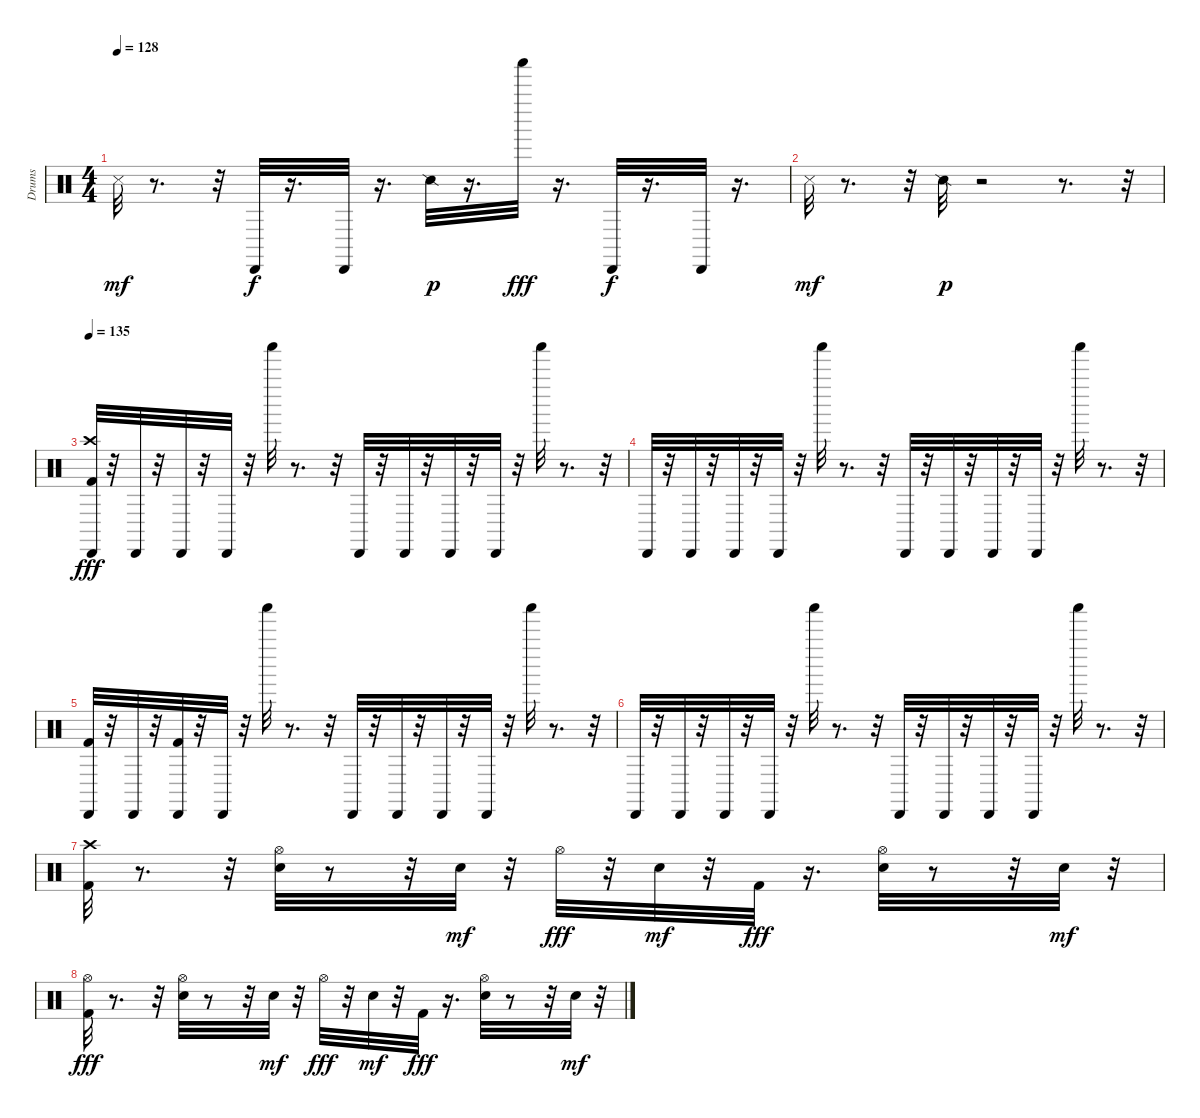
\track ("Drums" "Drums") {instrument percussion}
\staff {score}
\articulation defaults
\ts (4 4)
\tempo 128
\clef neutral
\ks c "Metronome (hit)".32{dy mf}
r.8{d} r.32 "Cabasa (hit)".32{dy f} r.16{d} "Cabasa (hit)".32 r.16{d} "Snare (side stick) 2".32{dy p} r.16{d} "Shaker (hit)".32{dy fff} r.16{d} "Cabasa (hit)".32{dy f} r.16{d} "Cabasa (hit)".32 r.16{d} |
"Metronome (hit)".32{dy mf} r.8{d} r.32 "Snare (side stick) 2".32{dy p} r.2 r.8{d} r.32 |
\tempo 135
("Kick (hit) 2" "Crash high (hit)" "Cabasa (hit)").32{dy fff} r.32 "Cabasa (hit)".32 r.32 "Cabasa (hit)".32 r.32 "Cabasa (hit)".32 r.32 "Shaker (hit)".32 r.8{d} r.32 "Cabasa (hit)".32 r.32 "Cabasa (hit)".32 r.32 "Cabasa (hit)".32 r.32 "Cabasa (hit)".32 r.32 "Shaker (hit)".32 r.8{d} r.32 |
"Cabasa (hit)".32 r.32 "Cabasa (hit)".32 r.32 "Cabasa (hit)".32 r.32 "Cabasa (hit)".32 r.32 "Shaker (hit)".32 r.8{d} r.32 "Cabasa (hit)".32 r.32 "Cabasa (hit)".32 r.32 "Cabasa (hit)".32 r.32 "Cabasa (hit)".32 r.32 "Shaker (hit)".32 r.8{d} r.32 |
("Kick (hit) 2" "Cabasa (hit)").32 r.32 "Cabasa (hit)".32 r.32 ("Kick (hit) 2" "Cabasa (hit)").32 r.32 "Cabasa (hit)".32 r.32 "Shaker (hit)".32 r.8{d} r.32 "Cabasa (hit)".32 r.32 "Cabasa (hit)".32 r.32 "Cabasa (hit)".32 r.32 "Cabasa (hit)".32 r.32 "Shaker (hit)".32 r.8{d} r.32 |
"Cabasa (hit)".32 r.32 "Cabasa (hit)".32 r.32 "Cabasa (hit)".32 r.32 "Cabasa (hit)".32 r.32 "Shaker (hit)".32 r.8{d} r.32 "Cabasa (hit)".32 r.32 "Cabasa (hit)".32 r.32 "Cabasa (hit)".32 r.32 "Cabasa (hit)".32 r.32 "Shaker (hit)".32 r.8{d} r.32 |
("Kick (hit) 2" "Crash high (hit)").32 r.8{d} r.32 ("Snare (hit) 2" "Hi-Hat (open)").32 r.8 r.32 "Snare (hit) 2".32{dy mf} r.32 "Hi-Hat (open)".32{dy fff} r.32 "Snare (hit) 2".32{dy mf} r.32 "Kick (hit) 2".32{dy fff} r.16{d} ("Snare (hit) 2" "Hi-Hat (open)").32 r.8 r.32 "Snare (hit) 2".32{dy mf} r.32 |
("Kick (hit) 2" "Hi-Hat (open)").32{dy fff} r.8{d} r.32 ("Snare (hit) 2" "Hi-Hat (open)").32 r.8 r.32 "Snare (hit) 2".32{dy mf} r.32 "Hi-Hat (open)".32{dy fff} r.32 "Snare (hit) 2".32{dy mf} r.32 "Kick (hit) 2".32{dy fff} r.16{d} ("Snare (hit) 2" "Hi-Hat (open)").32 r.8 r.32 "Snare (hit) 2".32{dy mf} r.32
